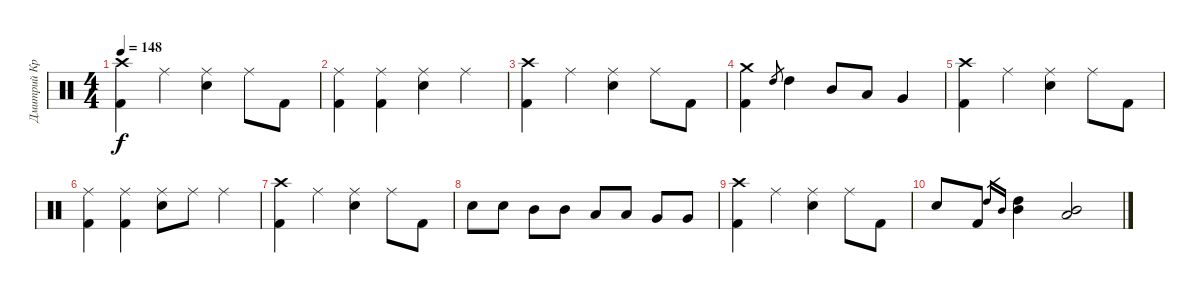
\track ("Дмитрий Кривенков" "Дмитрий Кр") {instrument percussion}
\staff {score}
\articulation defaults
\ts (4 4)
\tempo 148
\clef neutral
\ks c
("Crash high (hit)" "Kick (hit) 2").4{dy f} "Ride (middle)".4 ("Ride (middle)" "Electric Snare (hit)").4 "Ride (middle)".8 "Kick (hit) 2".8 |
("Ride (middle)" "Kick (hit) 2").4 ("Ride (middle)" "Kick (hit) 2").4 ("Ride (middle)" "Electric Snare (hit)").4 "Ride (middle)".4 |
("Crash high (hit)" "Kick (hit) 2").4 "Ride (middle)".4 ("Ride (middle)" "Electric Snare (hit)").4 "Ride (middle)".8 "Kick (hit) 2".8 |
("Crash medium (hit)" "Kick (hit) 2").4 "High Tom (hit)".8{gr} "High Tom (hit)".4 "Mid Tom (hit)".8 "Low Tom (hit)".8 "Very Low Tom (hit)".4 |
("Crash high (hit)" "Kick (hit) 2").4 "Ride (middle)".4 ("Ride (middle)" "Electric Snare (hit)").4 "Ride (middle)".8 "Kick (hit) 2".8 |
("Ride (middle)" "Kick (hit) 2").4 ("Ride (middle)" "Kick (hit) 2").4 ("Ride (middle)" "Electric Snare (hit)").8 "Ride (middle)".8 "Ride (middle)".4 |
("Crash high (hit)" "Kick (hit) 2").4 "Ride (middle)".4 ("Ride (middle)" "Electric Snare (hit)").4 "Ride (middle)".8 "Kick (hit) 2".8 |
"Electric Snare (hit)".8 "Electric Snare (hit)".8 "Mid Tom (hit)".8 "Mid Tom (hit)".8 "Low Tom (hit)".8 "Low Tom (hit)".8 "Very Low Tom (hit)".8 "Very Low Tom (hit)".8 |
("Crash high (hit)" "Kick (hit) 2").4 "Ride (middle)".4 ("Ride (middle)" "Electric Snare (hit)").4 "Ride (middle)".8 "Kick (hit) 2".8 |
"Electric Snare (hit)".8 "Kick (hit) 2".8 "High Tom (hit)".16{gr} "Mid Tom (hit)".16{gr} ("High Tom (hit)" "Mid Tom (hit)").4 ("Mid Tom (hit)" "Low Tom (hit)").2
